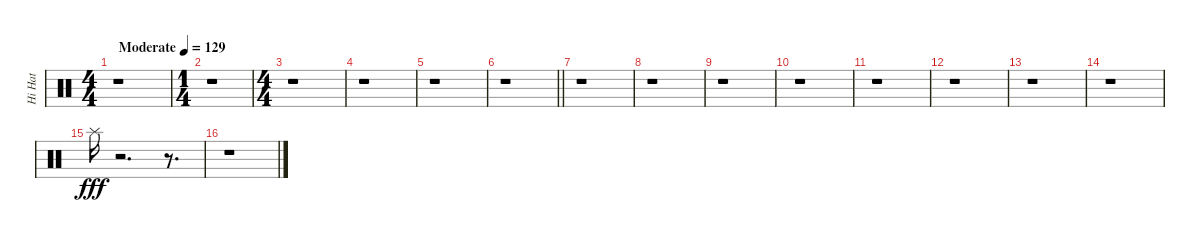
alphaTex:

\track ("Hi Hat" "Hi Hat") {instrument percussion}
\staff {score}
\articulation defaults
\ts (4 4)
\tempo (129 "Moderate")
\clef neutral
\ks c
r.1{dy fff} |
\ts (1 4)
r.1 |
\ts (4 4)
r.1 |
r.1 |
r.1 |
\barLineRight lightlight
r.1 |
r.1 |
r.1 |
r.1 |
r.1 |
r.1 |
r.1 |
r.1 |
r.1 |
"Splash (hit)".16 r.2{d} r.8{d} |
r.1
